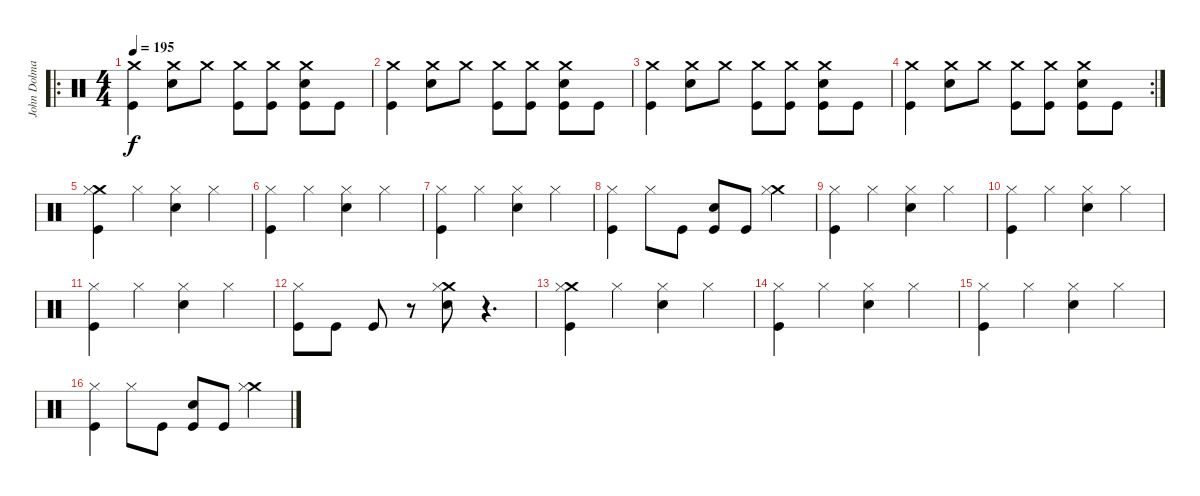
\track ("John Dolmayan" "John Dolma") {instrument percussion}
\staff {score}
\articulation defaults
\ro
\ts (4 4)
\tempo 195
\clef neutral
\ks c
("Crash medium (hit)" "Kick (hit)").4{dy f} ("Crash medium (hit)" "Snare (hit) 2").8 "Crash medium (hit)".8 ("Crash medium (hit)" "Kick (hit)").8 ("Crash medium (hit)" "Kick (hit)").8 ("Crash medium (hit)" "Snare (hit) 2" "Kick (hit)").8 "Kick (hit)".8 |
("Crash medium (hit)" "Kick (hit)").4 ("Crash medium (hit)" "Snare (hit) 2").8 "Crash medium (hit)".8 ("Crash medium (hit)" "Kick (hit)").8 ("Crash medium (hit)" "Kick (hit)").8 ("Crash medium (hit)" "Snare (hit) 2" "Kick (hit)").8 "Kick (hit)".8 |
("Crash medium (hit)" "Kick (hit)").4 ("Crash medium (hit)" "Snare (hit) 2").8 "Crash medium (hit)".8 ("Crash medium (hit)" "Kick (hit)").8 ("Crash medium (hit)" "Kick (hit)").8 ("Crash medium (hit)" "Snare (hit) 2" "Kick (hit)").8 "Kick (hit)".8 |
\rc 2
("Crash medium (hit)" "Kick (hit)").4 ("Crash medium (hit)" "Snare (hit) 2").8 "Crash medium (hit)".8 ("Crash medium (hit)" "Kick (hit)").8 ("Crash medium (hit)" "Kick (hit)").8 ("Crash medium (hit)" "Snare (hit) 2" "Kick (hit)").8 "Kick (hit)".8 |
("Crash medium (hit)" "Hi-Hat (closed)" "Kick (hit)").4 "Hi-Hat (closed)".4 ("Hi-Hat (closed)" "Snare (hit) 2").4 "Hi-Hat (closed)".4 |
("Hi-Hat (closed)" "Kick (hit)").4 "Hi-Hat (closed)".4 ("Hi-Hat (closed)" "Snare (hit) 2").4 "Hi-Hat (closed)".4 |
("Hi-Hat (closed)" "Kick (hit)").4 "Hi-Hat (closed)".4 ("Hi-Hat (closed)" "Snare (hit) 2").4 "Hi-Hat (closed)".4 |
("Hi-Hat (closed)" "Kick (hit)").4 "Hi-Hat (closed)".8 "Kick (hit)".8 ("Snare (hit) 2" "Kick (hit)").8 "Kick (hit)".8 ("Crash medium (hit)" "Hi-Hat (closed)").4 |
("Hi-Hat (closed)" "Kick (hit)").4 "Hi-Hat (closed)".4 ("Hi-Hat (closed)" "Snare (hit) 2").4 "Hi-Hat (closed)".4 |
("Hi-Hat (closed)" "Kick (hit)").4 "Hi-Hat (closed)".4 ("Hi-Hat (closed)" "Snare (hit) 2").4 "Hi-Hat (closed)".4 |
("Hi-Hat (closed)" "Kick (hit)").4 "Hi-Hat (closed)".4 ("Hi-Hat (closed)" "Snare (hit) 2").4 "Hi-Hat (closed)".4 |
("Hi-Hat (closed)" "Kick (hit)").8 "Kick (hit)".8 "Kick (hit)".8 r.8 ("Crash medium (hit)" "Hi-Hat (closed)" "Snare (hit) 2").8 r.4{d} |
("Crash medium (hit)" "Hi-Hat (closed)" "Kick (hit)").4 "Hi-Hat (closed)".4 ("Hi-Hat (closed)" "Snare (hit) 2").4 "Hi-Hat (closed)".4 |
("Hi-Hat (closed)" "Kick (hit)").4 "Hi-Hat (closed)".4 ("Hi-Hat (closed)" "Snare (hit) 2").4 "Hi-Hat (closed)".4 |
("Hi-Hat (closed)" "Kick (hit)").4 "Hi-Hat (closed)".4 ("Hi-Hat (closed)" "Snare (hit) 2").4 "Hi-Hat (closed)".4 |
("Hi-Hat (closed)" "Kick (hit)").4 "Hi-Hat (closed)".8 "Kick (hit)".8 ("Snare (hit) 2" "Kick (hit)").8 "Kick (hit)".8 ("Crash medium (hit)" "Hi-Hat (closed)").4
